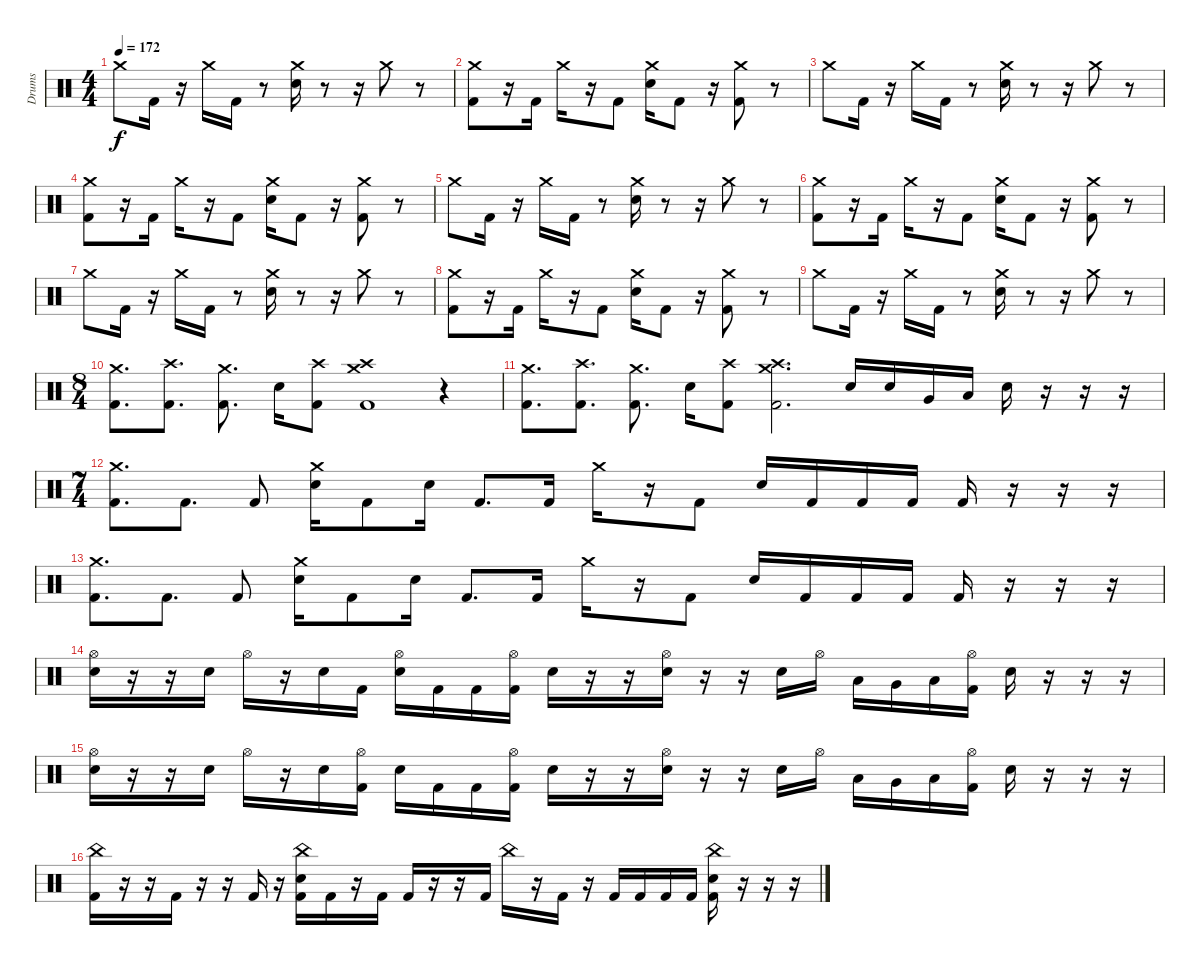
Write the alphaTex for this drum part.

\track ("Drums" "Drums") {instrument percussion}
\staff {score}
\articulation defaults
\ts (4 4)
\tempo 172
\clef neutral
\ks c "Crash medium (hit)".8{dy f} "Kick (hit) 2".16
r.16 "Crash medium (hit)".16 "Kick (hit) 2".16 r.8 ("Crash medium (hit)" "Electric Snare (hit)").16 r.8 r.16 "Crash medium (hit)".8 r.8 |
("Crash medium (hit)" "Kick (hit) 2").8 r.16 "Kick (hit) 2".16 "Crash medium (hit)".16 r.16 "Kick (hit) 2".8 ("Crash medium (hit)" "Electric Snare (hit)").16 "Kick (hit) 2".8 r.16 ("Crash medium (hit)" "Kick (hit) 2").8 r.8 |
"Crash medium (hit)".8 "Kick (hit) 2".16 r.16 "Crash medium (hit)".16 "Kick (hit) 2".16 r.8 ("Crash medium (hit)" "Electric Snare (hit)").16 r.8 r.16 "Crash medium (hit)".8 r.8 |
("Crash medium (hit)" "Kick (hit) 2").8 r.16 "Kick (hit) 2".16 "Crash medium (hit)".16 r.16 "Kick (hit) 2".8 ("Crash medium (hit)" "Electric Snare (hit)").16 "Kick (hit) 2".8 r.16 ("Crash medium (hit)" "Kick (hit) 2").8 r.8 |
"Crash medium (hit)".8 "Kick (hit) 2".16 r.16 "Crash medium (hit)".16 "Kick (hit) 2".16 r.8 ("Crash medium (hit)" "Electric Snare (hit)").16 r.8 r.16 "Crash medium (hit)".8 r.8 |
("Crash medium (hit)" "Kick (hit) 2").8 r.16 "Kick (hit) 2".16 "Crash medium (hit)".16 r.16 "Kick (hit) 2".8 ("Crash medium (hit)" "Electric Snare (hit)").16 "Kick (hit) 2".8 r.16 ("Crash medium (hit)" "Kick (hit) 2").8 r.8 |
"Crash medium (hit)".8 "Kick (hit) 2".16 r.16 "Crash medium (hit)".16 "Kick (hit) 2".16 r.8 ("Crash medium (hit)" "Electric Snare (hit)").16 r.8 r.16 "Crash medium (hit)".8 r.8 |
("Crash medium (hit)" "Kick (hit) 2").8 r.16 "Kick (hit) 2".16 "Crash medium (hit)".16 r.16 "Kick (hit) 2".8 ("Crash medium (hit)" "Electric Snare (hit)").16 "Kick (hit) 2".8 r.16 ("Crash medium (hit)" "Kick (hit) 2").8 r.8 |
"Crash medium (hit)".8 "Kick (hit) 2".16 r.16 "Crash medium (hit)".16 "Kick (hit) 2".16 r.8 ("Crash medium (hit)" "Electric Snare (hit)").16 r.8 r.16 "Crash medium (hit)".8 r.8 |
\ts (8 4)
("Crash medium (hit)" "Kick (hit) 2").8{d} ("Crash high (hit)" "Kick (hit) 2").8{d} ("Crash medium (hit)" "Kick (hit) 2").8{d} "Electric Snare (hit)".16 ("Crash high (hit)" "Kick (hit) 2").8 ("Crash medium (hit)" "Crash high (hit)" "Kick (hit) 2").1 r.4 |
("Crash medium (hit)" "Kick (hit) 2").8{d} ("Crash high (hit)" "Kick (hit) 2").8{d} ("Crash medium (hit)" "Kick (hit) 2").8{d} "Electric Snare (hit)".16 ("Crash high (hit)" "Kick (hit) 2").8 ("Crash medium (hit)" "Crash high (hit)" "Kick (hit) 2").2{d} "Electric Snare (hit)".16 "Electric Snare (hit)".16 "Very Low Tom (hit)".16 "Low Floor Tom (hit)".16 "Electric Snare (hit)".16 r.16 r.16 r.16 |
\ts (7 4)
("Crash medium (hit)" "Kick (hit) 2").8{d} "Kick (hit) 2".8{d} "Kick (hit) 2".8 ("Crash medium (hit)" "Electric Snare (hit)").16 "Kick (hit) 2".8 "Electric Snare (hit)".16 "Kick (hit) 2".8{d} "Kick (hit) 2".16 "Crash medium (hit)".16 r.16 "Kick (hit) 2".8 "Electric Snare (hit)".16 "Kick (hit) 2".16 "Kick (hit) 2".16 "Kick (hit) 2".16 "Kick (hit) 2".16 r.16 r.16 r.16 |
("Crash medium (hit)" "Kick (hit) 2").8{d} "Kick (hit) 2".8{d} "Kick (hit) 2".8 ("Crash medium (hit)" "Electric Snare (hit)").16 "Kick (hit) 2".8 "Electric Snare (hit)".16 "Kick (hit) 2".8{d} "Kick (hit) 2".16 "Crash medium (hit)".16 r.16 "Kick (hit) 2".8 "Electric Snare (hit)".16 "Kick (hit) 2".16 "Kick (hit) 2".16 "Kick (hit) 2".16 "Kick (hit) 2".16 r.16 r.16 r.16 |
("Hi-Hat (open)" "Electric Snare (hit)").16 r.16 r.16 "Electric Snare (hit)".16 "Hi-Hat (open)".16 r.16 "Electric Snare (hit)".16 "Kick (hit) 2".16 ("Hi-Hat (open)" "Electric Snare (hit)").16 "Kick (hit) 2".16 "Kick (hit) 2".16 ("Hi-Hat (open)" "Kick (hit) 2").16 "Electric Snare (hit)".16 r.16 r.16 ("Hi-Hat (open)" "Electric Snare (hit)").16 r.16 r.16 "Electric Snare (hit)".16 "Hi-Hat (open)".16 "Low Tom (hit)".16 "Very Low Tom (hit)".16 "Low Floor Tom (hit)".16 ("Hi-Hat (open)" "Kick (hit) 2").16 "Electric Snare (hit)".16 r.16 r.16 r.16 |
("Hi-Hat (open)" "Electric Snare (hit)").16 r.16 r.16 "Electric Snare (hit)".16 "Hi-Hat (open)".16 r.16 "Electric Snare (hit)".16 ("Hi-Hat (open)" "Kick (hit) 2").16 "Electric Snare (hit)".16 "Kick (hit) 2".16 "Kick (hit) 2".16 ("Hi-Hat (open)" "Kick (hit) 2").16 "Electric Snare (hit)".16 r.16 r.16 ("Hi-Hat (open)" "Electric Snare (hit)").16 r.16 r.16 "Electric Snare (hit)".16 "Hi-Hat (open)".16 "Low Tom (hit)".16 "Very Low Tom (hit)".16 "Low Floor Tom (hit)".16 ("Hi-Hat (open)" "Kick (hit) 2").16 "Electric Snare (hit)".16 r.16 r.16 r.16 |
("China (hit)" "Kick (hit) 2").16 r.16 r.16 "Kick (hit) 2".16 r.16 r.16 "Kick (hit) 2".16 r.16 ("China (hit)" "Electric Snare (hit)" "Kick (hit) 2").16 "Kick (hit) 2".16 r.16 "Kick (hit) 2".16 "Kick (hit) 2".16 r.16 r.16 "Kick (hit) 2".16 "China (hit)".16 r.16 "Kick (hit) 2".16 r.16 "Kick (hit) 2".16 "Kick (hit) 2".16 "Kick (hit) 2".16 "Kick (hit) 2".16 ("China (hit)" "Electric Snare (hit)" "Kick (hit) 2").16 r.16 r.16 r.16
